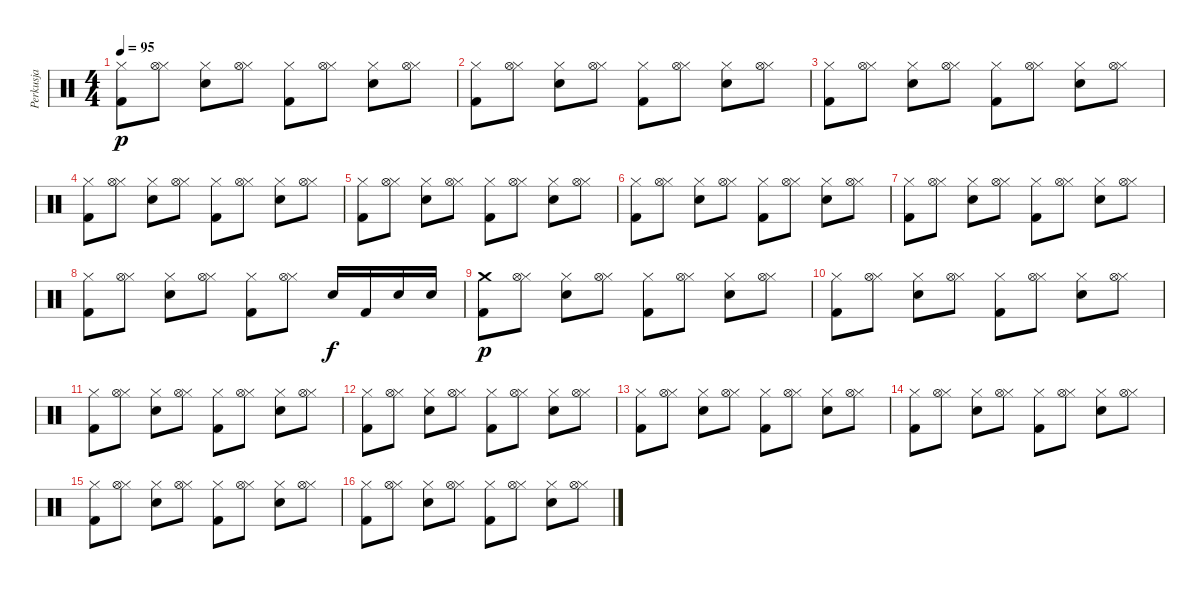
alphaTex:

\track ("Perkusja" "Perkusja") {instrument percussion}
\staff {score}
\articulation defaults
\ts (4 4)
\tempo 95
\clef neutral
\ks c
("Kick (hit) 2" "Hi-Hat (closed)").8{dy p} ("Hi-Hat (closed)" "Hi-Hat (open)").8 ("Electric Snare (hit)" "Hi-Hat (closed)").8 ("Hi-Hat (closed)" "Hi-Hat (open)").8 ("Kick (hit) 2" "Hi-Hat (closed)").8 ("Hi-Hat (closed)" "Hi-Hat (open)").8 ("Electric Snare (hit)" "Hi-Hat (closed)").8 ("Hi-Hat (closed)" "Hi-Hat (open)").8 |
("Kick (hit) 2" "Hi-Hat (closed)").8 ("Hi-Hat (closed)" "Hi-Hat (open)").8 ("Electric Snare (hit)" "Hi-Hat (closed)").8 ("Hi-Hat (closed)" "Hi-Hat (open)").8 ("Kick (hit) 2" "Hi-Hat (closed)").8 ("Hi-Hat (closed)" "Hi-Hat (open)").8 ("Electric Snare (hit)" "Hi-Hat (closed)").8 ("Hi-Hat (closed)" "Hi-Hat (open)").8 |
("Kick (hit) 2" "Hi-Hat (closed)").8 ("Hi-Hat (closed)" "Hi-Hat (open)").8 ("Electric Snare (hit)" "Hi-Hat (closed)").8 ("Hi-Hat (closed)" "Hi-Hat (open)").8 ("Kick (hit) 2" "Hi-Hat (closed)").8 ("Hi-Hat (closed)" "Hi-Hat (open)").8 ("Electric Snare (hit)" "Hi-Hat (closed)").8 ("Hi-Hat (closed)" "Hi-Hat (open)").8 |
("Kick (hit) 2" "Hi-Hat (closed)").8 ("Hi-Hat (closed)" "Hi-Hat (open)").8 ("Electric Snare (hit)" "Hi-Hat (closed)").8 ("Hi-Hat (closed)" "Hi-Hat (open)").8 ("Kick (hit) 2" "Hi-Hat (closed)").8 ("Hi-Hat (closed)" "Hi-Hat (open)").8 ("Electric Snare (hit)" "Hi-Hat (closed)").8 ("Hi-Hat (closed)" "Hi-Hat (open)").8 |
("Kick (hit) 2" "Hi-Hat (closed)").8 ("Hi-Hat (closed)" "Hi-Hat (open)").8 ("Electric Snare (hit)" "Hi-Hat (closed)").8 ("Hi-Hat (closed)" "Hi-Hat (open)").8 ("Kick (hit) 2" "Hi-Hat (closed)").8 ("Hi-Hat (closed)" "Hi-Hat (open)").8 ("Electric Snare (hit)" "Hi-Hat (closed)").8 ("Hi-Hat (closed)" "Hi-Hat (open)").8 |
("Kick (hit) 2" "Hi-Hat (closed)").8 ("Hi-Hat (closed)" "Hi-Hat (open)").8 ("Electric Snare (hit)" "Hi-Hat (closed)").8 ("Hi-Hat (closed)" "Hi-Hat (open)").8 ("Kick (hit) 2" "Hi-Hat (closed)").8 ("Hi-Hat (closed)" "Hi-Hat (open)").8 ("Electric Snare (hit)" "Hi-Hat (closed)").8 ("Hi-Hat (closed)" "Hi-Hat (open)").8 |
("Kick (hit) 2" "Hi-Hat (closed)").8 ("Hi-Hat (closed)" "Hi-Hat (open)").8 ("Electric Snare (hit)" "Hi-Hat (closed)").8 ("Hi-Hat (closed)" "Hi-Hat (open)").8 ("Kick (hit) 2" "Hi-Hat (closed)").8 ("Hi-Hat (closed)" "Hi-Hat (open)").8 ("Electric Snare (hit)" "Hi-Hat (closed)").8 ("Hi-Hat (closed)" "Hi-Hat (open)").8 |
("Kick (hit) 2" "Hi-Hat (closed)").8 ("Hi-Hat (closed)" "Hi-Hat (open)").8 ("Electric Snare (hit)" "Hi-Hat (closed)").8 ("Hi-Hat (closed)" "Hi-Hat (open)").8 ("Kick (hit) 2" "Hi-Hat (closed)").8 ("Hi-Hat (closed)" "Hi-Hat (open)").8 "Electric Snare (hit)".16{dy f} "Kick (hit) 2".16 "Electric Snare (hit)".16 "Electric Snare (hit)".16 |
("Kick (hit) 2" "Crash medium (hit)").8{dy p} ("Hi-Hat (closed)" "Hi-Hat (open)").8 ("Electric Snare (hit)" "Hi-Hat (closed)").8 ("Hi-Hat (closed)" "Hi-Hat (open)").8 ("Kick (hit) 2" "Hi-Hat (closed)").8 ("Hi-Hat (closed)" "Hi-Hat (open)").8 ("Electric Snare (hit)" "Hi-Hat (closed)").8 ("Hi-Hat (closed)" "Hi-Hat (open)").8 |
("Kick (hit) 2" "Hi-Hat (closed)").8 ("Hi-Hat (closed)" "Hi-Hat (open)").8 ("Electric Snare (hit)" "Hi-Hat (closed)").8 ("Hi-Hat (closed)" "Hi-Hat (open)").8 ("Kick (hit) 2" "Hi-Hat (closed)").8 ("Hi-Hat (closed)" "Hi-Hat (open)").8 ("Electric Snare (hit)" "Hi-Hat (closed)").8 ("Hi-Hat (closed)" "Hi-Hat (open)").8 |
("Kick (hit) 2" "Hi-Hat (closed)").8 ("Hi-Hat (closed)" "Hi-Hat (open)").8 ("Electric Snare (hit)" "Hi-Hat (closed)").8 ("Hi-Hat (closed)" "Hi-Hat (open)").8 ("Kick (hit) 2" "Hi-Hat (closed)").8 ("Hi-Hat (closed)" "Hi-Hat (open)").8 ("Electric Snare (hit)" "Hi-Hat (closed)").8 ("Hi-Hat (closed)" "Hi-Hat (open)").8 |
("Kick (hit) 2" "Hi-Hat (closed)").8 ("Hi-Hat (closed)" "Hi-Hat (open)").8 ("Electric Snare (hit)" "Hi-Hat (closed)").8 ("Hi-Hat (closed)" "Hi-Hat (open)").8 ("Kick (hit) 2" "Hi-Hat (closed)").8 ("Hi-Hat (closed)" "Hi-Hat (open)").8 ("Electric Snare (hit)" "Hi-Hat (closed)").8 ("Hi-Hat (closed)" "Hi-Hat (open)").8 |
("Kick (hit) 2" "Hi-Hat (closed)").8 ("Hi-Hat (closed)" "Hi-Hat (open)").8 ("Electric Snare (hit)" "Hi-Hat (closed)").8 ("Hi-Hat (closed)" "Hi-Hat (open)").8 ("Kick (hit) 2" "Hi-Hat (closed)").8 ("Hi-Hat (closed)" "Hi-Hat (open)").8 ("Electric Snare (hit)" "Hi-Hat (closed)").8 ("Hi-Hat (closed)" "Hi-Hat (open)").8 |
("Kick (hit) 2" "Hi-Hat (closed)").8 ("Hi-Hat (closed)" "Hi-Hat (open)").8 ("Electric Snare (hit)" "Hi-Hat (closed)").8 ("Hi-Hat (closed)" "Hi-Hat (open)").8 ("Kick (hit) 2" "Hi-Hat (closed)").8 ("Hi-Hat (closed)" "Hi-Hat (open)").8 ("Electric Snare (hit)" "Hi-Hat (closed)").8 ("Hi-Hat (closed)" "Hi-Hat (open)").8 |
("Kick (hit) 2" "Hi-Hat (closed)").8 ("Hi-Hat (closed)" "Hi-Hat (open)").8 ("Electric Snare (hit)" "Hi-Hat (closed)").8 ("Hi-Hat (closed)" "Hi-Hat (open)").8 ("Kick (hit) 2" "Hi-Hat (closed)").8 ("Hi-Hat (closed)" "Hi-Hat (open)").8 ("Electric Snare (hit)" "Hi-Hat (closed)").8 ("Hi-Hat (closed)" "Hi-Hat (open)").8 |
("Kick (hit) 2" "Hi-Hat (closed)").8 ("Hi-Hat (closed)" "Hi-Hat (open)").8 ("Electric Snare (hit)" "Hi-Hat (closed)").8 ("Hi-Hat (closed)" "Hi-Hat (open)").8 ("Kick (hit) 2" "Hi-Hat (closed)").8 ("Hi-Hat (closed)" "Hi-Hat (open)").8 ("Electric Snare (hit)" "Hi-Hat (closed)").8 ("Hi-Hat (closed)" "Hi-Hat (open)").8
